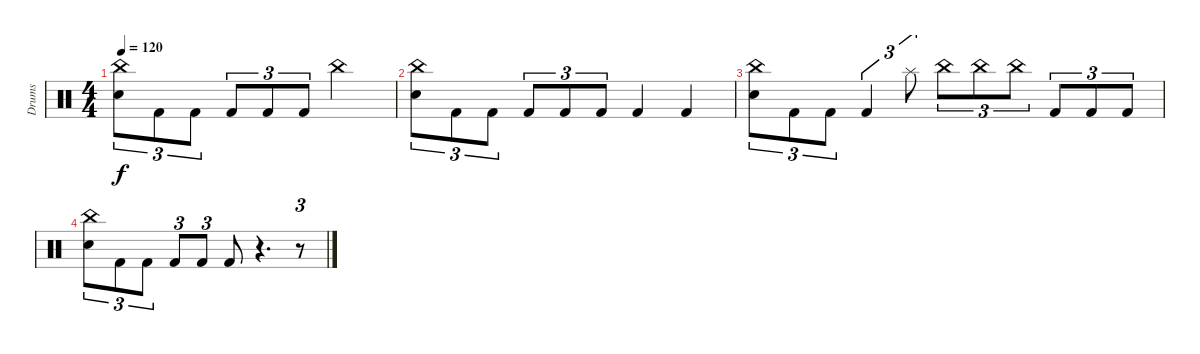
\track ("Drums" "Drums") {instrument percussion}
\staff {score}
\articulation defaults
\ts (4 4)
\tempo 120
\clef neutral
\ks c
("China (hit)" "Electric Snare (hit)").8{tu (3 2) dy f} "Kick (hit) 2".8{tu (3 2)} "Kick (hit) 2".8{tu (3 2)} "Kick (hit) 2".8{tu (3 2)} "Kick (hit) 2".8{tu (3 2)} "Kick (hit) 2".8{tu (3 2)} "China (hit)".2 |
("China (hit)" "Electric Snare (hit)").8{tu (3 2)} "Kick (hit) 2".8{tu (3 2)} "Kick (hit) 2".8{tu (3 2)} "Kick (hit) 2".8{tu (3 2)} "Kick (hit) 2".8{tu (3 2)} "Kick (hit) 2".8{tu (3 2)} "Kick (hit) 2".4 "Kick (hit) 2".4 |
("China (hit)" "Electric Snare (hit)").8{tu (3 2)} "Kick (hit) 2".8{tu (3 2)} "Kick (hit) 2".8{tu (3 2)} "Kick (hit) 2".4{tu (3 2)} "Splash (hit)".8{tu (3 2)} "China (hit)".8{tu (3 2)} "China (hit)".8{tu (3 2)} "China (hit)".8{tu (3 2)} "Kick (hit) 2".8{tu (3 2)} "Kick (hit) 2".8{tu (3 2)} "Kick (hit) 2".8{tu (3 2)} |
("China (hit)" "Electric Snare (hit)").8{tu (3 2)} "Kick (hit) 2".8{tu (3 2)} "Kick (hit) 2".8{tu (3 2)} "Kick (hit) 2".8{tu (3 2)} "Kick (hit) 2".8{tu (3 2)} "Kick (hit) 2".8 r.4{d} r.8{tu (3 2)}
